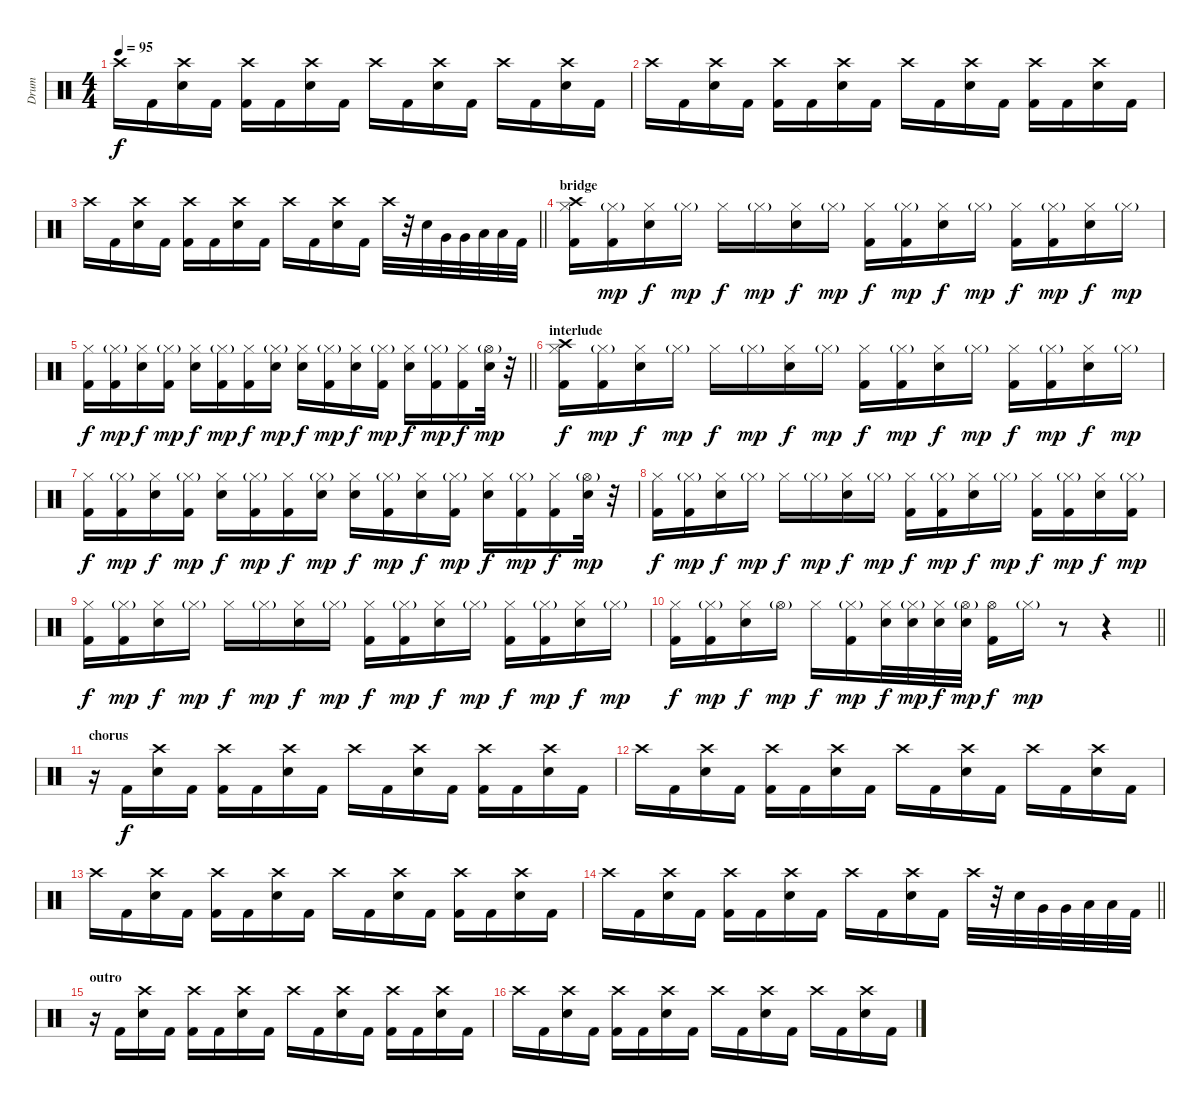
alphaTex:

\track ("Drum" "Drum") {instrument percussion}
\staff {score}
\articulation defaults
\ts (4 4)
\tempo 95
\clef neutral
\ks c "Crash high (hit)".16{dy f} "Kick (hit) 2".16
("Crash high (hit)" "Electric Snare (hit)").16 "Kick (hit) 2".16 ("Crash high (hit)" "Kick (hit) 2").16 "Kick (hit) 2".16 ("Crash high (hit)" "Electric Snare (hit)").16 "Kick (hit) 2".16 "Crash high (hit)".16 "Kick (hit) 2".16 ("Crash high (hit)" "Electric Snare (hit)").16 "Kick (hit) 2".16 "Crash high (hit)".16 "Kick (hit) 2".16 ("Crash high (hit)" "Electric Snare (hit)").16 "Kick (hit) 2".16 |
"Crash high (hit)".16 "Kick (hit) 2".16 ("Crash high (hit)" "Electric Snare (hit)").16 "Kick (hit) 2".16 ("Crash high (hit)" "Kick (hit) 2").16 "Kick (hit) 2".16 ("Crash high (hit)" "Electric Snare (hit)").16 "Kick (hit) 2".16 "Crash high (hit)".16 "Kick (hit) 2".16 ("Crash high (hit)" "Electric Snare (hit)").16 "Kick (hit) 2".16 ("Crash high (hit)" "Kick (hit) 2").16 "Kick (hit) 2".16 ("Crash high (hit)" "Electric Snare (hit)").16 "Kick (hit) 2".16 |
\barLineRight lightlight "Crash high (hit)".16 "Kick (hit) 2".16
("Crash high (hit)" "Electric Snare (hit)").16 "Kick (hit) 2".16 ("Crash high (hit)" "Kick (hit) 2").16 "Kick (hit) 2".16 ("Crash high (hit)" "Electric Snare (hit)").16 "Kick (hit) 2".16 "Crash high (hit)".16 "Kick (hit) 2".16 ("Crash high (hit)" "Electric Snare (hit)").16 "Kick (hit) 2".16 "Crash high (hit)".32 r.32 "Electric Snare (hit)".32 "Very Low Tom (hit)".32 "Very Low Tom (hit)".32 "Low Floor Tom (hit)".32 "Low Floor Tom (hit)".32 "Kick (hit) 2".32 |
\section ("" "bridge")
("Crash high (hit)" "Hi-Hat (closed)" "Kick (hit) 2").16 ("Hi-Hat (closed)"{g} "Kick (hit) 2").16{dy mp} ("Hi-Hat (closed)" "Electric Snare (hit)").16{dy f} "Hi-Hat (closed)"{g}.16{dy mp} "Hi-Hat (closed)".16{dy f} "Hi-Hat (closed)"{g}.16{dy mp} ("Hi-Hat (closed)" "Electric Snare (hit)").16{dy f} "Hi-Hat (closed)"{g}.16{dy mp} ("Hi-Hat (closed)" "Kick (hit) 2").16{dy f} ("Hi-Hat (closed)"{g} "Kick (hit) 2").16{dy mp} ("Hi-Hat (closed)" "Electric Snare (hit)").16{dy f} "Hi-Hat (closed)"{g}.16{dy mp} ("Hi-Hat (closed)" "Kick (hit) 2").16{dy f} ("Hi-Hat (closed)"{g} "Kick (hit) 2").16{dy mp} ("Hi-Hat (closed)" "Electric Snare (hit)").16{dy f} "Hi-Hat (closed)"{g}.16{dy mp} |
\barLineRight lightlight
("Hi-Hat (closed)" "Kick (hit) 2").16{dy f} ("Hi-Hat (closed)"{g} "Kick (hit) 2").16{dy mp} ("Hi-Hat (closed)" "Electric Snare (hit)").16{dy f} ("Hi-Hat (closed)"{g} "Kick (hit) 2").16{dy mp} ("Hi-Hat (closed)" "Electric Snare (hit)").16{dy f} ("Hi-Hat (closed)"{g} "Kick (hit) 2").16{dy mp} ("Hi-Hat (closed)" "Kick (hit) 2").16{dy f} ("Hi-Hat (closed)"{g} "Electric Snare (hit)").16{dy mp} ("Hi-Hat (closed)" "Electric Snare (hit)").16{dy f} ("Hi-Hat (closed)"{g} "Kick (hit) 2").16{dy mp} ("Hi-Hat (closed)" "Electric Snare (hit)").16{dy f} ("Hi-Hat (closed)"{g} "Kick (hit) 2").16{dy mp} ("Hi-Hat (closed)" "Electric Snare (hit)").16{dy f} ("Hi-Hat (closed)"{g} "Kick (hit) 2").16{dy mp} ("Hi-Hat (closed)" "Kick (hit) 2").16{dy f} ("Hi-Hat (open)"{g} "Electric Snare (hit)").32{dy mp} r.32 |
\section ("" "interlude")
("Crash high (hit)" "Hi-Hat (closed)" "Kick (hit) 2").16{dy f} ("Hi-Hat (closed)"{g} "Kick (hit) 2").16{dy mp} ("Hi-Hat (closed)" "Electric Snare (hit)").16{dy f} "Hi-Hat (closed)"{g}.16{dy mp} "Hi-Hat (closed)".16{dy f} "Hi-Hat (closed)"{g}.16{dy mp} ("Hi-Hat (closed)" "Electric Snare (hit)").16{dy f} "Hi-Hat (closed)"{g}.16{dy mp} ("Hi-Hat (closed)" "Kick (hit) 2").16{dy f} ("Hi-Hat (closed)"{g} "Kick (hit) 2").16{dy mp} ("Hi-Hat (closed)" "Electric Snare (hit)").16{dy f} "Hi-Hat (closed)"{g}.16{dy mp} ("Hi-Hat (closed)" "Kick (hit) 2").16{dy f} ("Hi-Hat (closed)"{g} "Kick (hit) 2").16{dy mp} ("Hi-Hat (closed)" "Electric Snare (hit)").16{dy f} "Hi-Hat (closed)"{g}.16{dy mp} |
("Hi-Hat (closed)" "Kick (hit) 2").16{dy f} ("Hi-Hat (closed)"{g} "Kick (hit) 2").16{dy mp} ("Hi-Hat (closed)" "Electric Snare (hit)").16{dy f} ("Hi-Hat (closed)"{g} "Kick (hit) 2").16{dy mp} ("Hi-Hat (closed)" "Electric Snare (hit)").16{dy f} ("Hi-Hat (closed)"{g} "Kick (hit) 2").16{dy mp} ("Hi-Hat (closed)" "Kick (hit) 2").16{dy f} ("Hi-Hat (closed)"{g} "Electric Snare (hit)").16{dy mp} ("Hi-Hat (closed)" "Electric Snare (hit)").16{dy f} ("Hi-Hat (closed)"{g} "Kick (hit) 2").16{dy mp} ("Hi-Hat (closed)" "Electric Snare (hit)").16{dy f} ("Hi-Hat (closed)"{g} "Kick (hit) 2").16{dy mp} ("Hi-Hat (closed)" "Electric Snare (hit)").16{dy f} ("Hi-Hat (closed)"{g} "Kick (hit) 2").16{dy mp} ("Hi-Hat (closed)" "Kick (hit) 2").16{dy f} ("Hi-Hat (open)"{g} "Electric Snare (hit)").32{dy mp} r.32 |
("Hi-Hat (closed)" "Kick (hit) 2").16{dy f} ("Hi-Hat (closed)"{g} "Kick (hit) 2").16{dy mp} ("Hi-Hat (closed)" "Electric Snare (hit)").16{dy f} "Hi-Hat (closed)"{g}.16{dy mp} "Hi-Hat (closed)".16{dy f} "Hi-Hat (closed)"{g}.16{dy mp} ("Hi-Hat (closed)" "Electric Snare (hit)").16{dy f} "Hi-Hat (closed)"{g}.16{dy mp} ("Hi-Hat (closed)" "Kick (hit) 2").16{dy f} ("Hi-Hat (closed)"{g} "Kick (hit) 2").16{dy mp} ("Hi-Hat (closed)" "Electric Snare (hit)").16{dy f} "Hi-Hat (closed)"{g}.16{dy mp} ("Hi-Hat (closed)" "Kick (hit) 2").16{dy f} ("Hi-Hat (closed)"{g} "Kick (hit) 2").16{dy mp} ("Hi-Hat (closed)" "Electric Snare (hit)").16{dy f} ("Hi-Hat (closed)"{g} "Kick (hit) 2").16{dy mp} |
("Hi-Hat (closed)" "Kick (hit) 2").16{dy f} ("Hi-Hat (closed)"{g} "Kick (hit) 2").16{dy mp} ("Hi-Hat (closed)" "Electric Snare (hit)").16{dy f} "Hi-Hat (closed)"{g}.16{dy mp} "Hi-Hat (closed)".16{dy f} "Hi-Hat (closed)"{g}.16{dy mp} ("Hi-Hat (closed)" "Electric Snare (hit)").16{dy f} "Hi-Hat (closed)"{g}.16{dy mp} ("Hi-Hat (closed)" "Kick (hit) 2").16{dy f} ("Hi-Hat (closed)"{g} "Kick (hit) 2").16{dy mp} ("Hi-Hat (closed)" "Electric Snare (hit)").16{dy f} "Hi-Hat (closed)"{g}.16{dy mp} ("Hi-Hat (closed)" "Kick (hit) 2").16{dy f} ("Hi-Hat (closed)"{g} "Kick (hit) 2").16{dy mp} ("Hi-Hat (closed)" "Electric Snare (hit)").16{dy f} "Hi-Hat (closed)"{g}.16{dy mp} |
\barLineRight lightlight
("Hi-Hat (closed)" "Kick (hit) 2").16{dy f} ("Hi-Hat (closed)"{g} "Kick (hit) 2").16{dy mp} ("Hi-Hat (closed)" "Electric Snare (hit)").16{dy f} "Hi-Hat (open)"{g}.16{dy mp} "Hi-Hat (closed)".16{dy f} ("Hi-Hat (closed)"{g} "Kick (hit) 2").16{dy mp} ("Hi-Hat (closed)" "Electric Snare (hit)").32{dy f} ("Hi-Hat (closed)"{g} "Electric Snare (hit)").32{dy mp} ("Hi-Hat (closed)" "Electric Snare (hit)").32{dy f} ("Hi-Hat (open)"{g} "Electric Snare (hit)").32{dy mp} ("Hi-Hat (open)" "Kick (hit) 2").16{dy f} "Hi-Hat (closed)"{g}.16{dy mp} r.8 r.4 |
\section ("" "chorus")
r.16 "Kick (hit) 2".16{dy f} ("Crash high (hit)" "Electric Snare (hit)").16 "Kick (hit) 2".16 ("Crash high (hit)" "Kick (hit) 2").16 "Kick (hit) 2".16 ("Crash high (hit)" "Electric Snare (hit)").16 "Kick (hit) 2".16 "Crash high (hit)".16 "Kick (hit) 2".16 ("Crash high (hit)" "Electric Snare (hit)").16 "Kick (hit) 2".16 ("Crash high (hit)" "Kick (hit) 2").16 "Kick (hit) 2".16 ("Crash high (hit)" "Electric Snare (hit)").16 "Kick (hit) 2".16 |
"Crash high (hit)".16 "Kick (hit) 2".16 ("Crash high (hit)" "Electric Snare (hit)").16 "Kick (hit) 2".16 ("Crash high (hit)" "Kick (hit) 2").16 "Kick (hit) 2".16 ("Crash high (hit)" "Electric Snare (hit)").16 "Kick (hit) 2".16 "Crash high (hit)".16 "Kick (hit) 2".16 ("Crash high (hit)" "Electric Snare (hit)").16 "Kick (hit) 2".16 "Crash high (hit)".16 "Kick (hit) 2".16 ("Crash high (hit)" "Electric Snare (hit)").16 "Kick (hit) 2".16 |
"Crash high (hit)".16 "Kick (hit) 2".16 ("Crash high (hit)" "Electric Snare (hit)").16 "Kick (hit) 2".16 ("Crash high (hit)" "Kick (hit) 2").16 "Kick (hit) 2".16 ("Crash high (hit)" "Electric Snare (hit)").16 "Kick (hit) 2".16 "Crash high (hit)".16 "Kick (hit) 2".16 ("Crash high (hit)" "Electric Snare (hit)").16 "Kick (hit) 2".16 ("Crash high (hit)" "Kick (hit) 2").16 "Kick (hit) 2".16 ("Crash high (hit)" "Electric Snare (hit)").16 "Kick (hit) 2".16 |
\barLineRight lightlight "Crash high (hit)".16 "Kick (hit) 2".16
("Crash high (hit)" "Electric Snare (hit)").16 "Kick (hit) 2".16 ("Crash high (hit)" "Kick (hit) 2").16 "Kick (hit) 2".16 ("Crash high (hit)" "Electric Snare (hit)").16 "Kick (hit) 2".16 "Crash high (hit)".16 "Kick (hit) 2".16 ("Crash high (hit)" "Electric Snare (hit)").16 "Kick (hit) 2".16 "Crash high (hit)".32 r.32 "Electric Snare (hit)".32 "Very Low Tom (hit)".32 "Very Low Tom (hit)".32 "Low Floor Tom (hit)".32 "Low Floor Tom (hit)".32 "Kick (hit) 2".32 |
\section ("" "outro")
r.16 "Kick (hit) 2".16 ("Crash high (hit)" "Electric Snare (hit)").16 "Kick (hit) 2".16 ("Crash high (hit)" "Kick (hit) 2").16 "Kick (hit) 2".16 ("Crash high (hit)" "Electric Snare (hit)").16 "Kick (hit) 2".16 "Crash high (hit)".16 "Kick (hit) 2".16 ("Crash high (hit)" "Electric Snare (hit)").16 "Kick (hit) 2".16 ("Crash high (hit)" "Kick (hit) 2").16 "Kick (hit) 2".16 ("Crash high (hit)" "Electric Snare (hit)").16 "Kick (hit) 2".16 |
"Crash high (hit)".16 "Kick (hit) 2".16 ("Crash high (hit)" "Electric Snare (hit)").16 "Kick (hit) 2".16 ("Crash high (hit)" "Kick (hit) 2").16 "Kick (hit) 2".16 ("Crash high (hit)" "Electric Snare (hit)").16 "Kick (hit) 2".16 "Crash high (hit)".16 "Kick (hit) 2".16 ("Crash high (hit)" "Electric Snare (hit)").16 "Kick (hit) 2".16 "Crash high (hit)".16 "Kick (hit) 2".16 ("Crash high (hit)" "Electric Snare (hit)").16 "Kick (hit) 2".16
